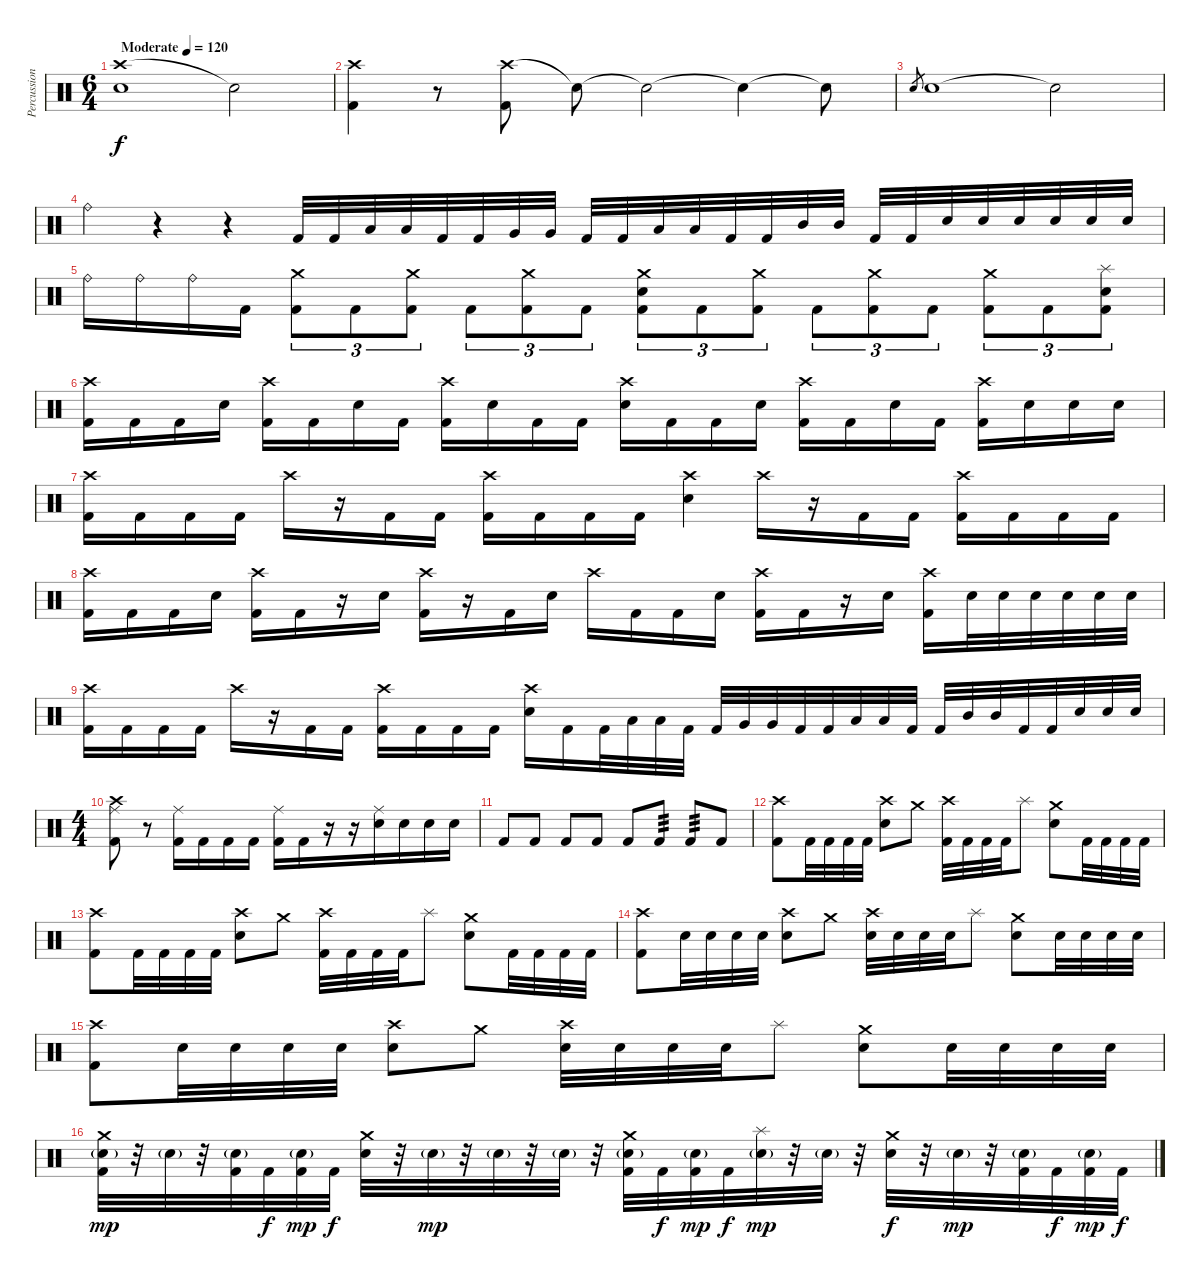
\track ("Percussion" "Percussion") {instrument percussion}
\staff {score}
\articulation defaults
\ts (6 4)
\tempo (120 "Moderate")
\clef neutral
\ks c
("Crash high (hit)" "Snare (hit) 2").1{dy f} "Snare (hit)"{t}.2 |
("Crash high (hit)" "Kick (hit) 2").4 r.8 ("Crash high (hit)" "Kick (hit) 2").8 "Snare (hit)"{t}.8 "Snare (hit)"{t}.2 "Snare (hit)"{t}.4 "Snare (hit)"{t}.8 |
"Snare (hit) 2".8{gr} "Snare (hit) 2".1 "Snare (hit)"{t}.2 |
"Ride (bell)".4 r.4 r.4 "Kick (hit) 2".32 "Kick (hit) 2".32 "Low Floor Tom (hit)".32 "Low Floor Tom (hit)".32 "Kick (hit) 2".32 "Kick (hit) 2".32 "Very Low Tom (hit)".32 "Very Low Tom (hit)".32 "Kick (hit) 2".32 "Kick (hit) 2".32 "Low Tom (hit)".32 "Low Tom (hit)".32 "Kick (hit) 2".32 "Kick (hit) 2".32 "Mid Tom (hit)".32 "Mid Tom (hit)".32 "Kick (hit) 2".32 "Kick (hit) 2".32 "Electric Snare (hit)".32 "Electric Snare (hit)".32 "Electric Snare (hit)".32 "Electric Snare (hit)".32{beam merge} "Electric Snare (hit)".32 "Electric Snare (hit)".32 |
"Ride (bell)".16 "Ride (bell)".16 "Ride (bell)".16 "Kick (hit) 2".16 ("Crash medium (hit)" "Kick (hit) 2").8{tu (3 2)} "Kick (hit) 2".8{tu (3 2)} ("Crash medium (hit)" "Kick (hit) 2").8{tu (3 2)} "Kick (hit) 2".8{tu (3 2)} ("Crash medium (hit)" "Kick (hit) 2").8{tu (3 2)} "Kick (hit) 2".8{tu (3 2)} ("Crash medium (hit)" "Electric Snare (hit)" "Kick (hit) 2").8{tu (3 2)} "Kick (hit) 2".8{tu (3 2)} ("Crash medium (hit)" "Kick (hit) 2").8{tu (3 2)} "Kick (hit) 2".8{tu (3 2)} ("Crash medium (hit)" "Kick (hit) 2").8{tu (3 2)} "Kick (hit) 2".8{tu (3 2)} ("Crash medium (hit)" "Kick (hit) 2").8{tu (3 2)} "Kick (hit) 2".8{tu (3 2)} ("Splash (hit)" "Electric Snare (hit)" "Kick (hit) 2").8{tu (3 2)} |
("Crash high (hit)" "Kick (hit) 2").16 "Kick (hit) 2".16 "Kick (hit) 2".16 "Electric Snare (hit)".16 ("Crash high (hit)" "Kick (hit) 2").16 "Kick (hit) 2".16 "Electric Snare (hit)".16 "Kick (hit) 2".16 ("Crash high (hit)" "Kick (hit) 2").16 "Electric Snare (hit)".16 "Kick (hit) 2".16 "Kick (hit) 2".16 ("Crash high (hit)" "Electric Snare (hit)").16 "Kick (hit) 2".16 "Kick (hit) 2".16 "Electric Snare (hit)".16 ("Crash high (hit)" "Kick (hit) 2").16 "Kick (hit) 2".16 "Electric Snare (hit)".16 "Kick (hit) 2".16 ("Crash high (hit)" "Kick (hit) 2").16 "Electric Snare (hit)".16 "Electric Snare (hit)".16 "Electric Snare (hit)".16 |
("Crash high (hit)" "Kick (hit) 2").16 "Kick (hit) 2".16 "Kick (hit) 2".16 "Kick (hit) 2".16 "Crash high (hit)".16 r.16 "Kick (hit) 2".16 "Kick (hit) 2".16 ("Crash high (hit)" "Kick (hit) 2").16 "Kick (hit) 2".16 "Kick (hit) 2".16 "Kick (hit) 2".16 ("Crash high (hit)" "Electric Snare (hit)").4 "Crash high (hit)".16 r.16 "Kick (hit) 2".16 "Kick (hit) 2".16 ("Crash high (hit)" "Kick (hit) 2").16 "Kick (hit) 2".16 "Kick (hit) 2".16 "Kick (hit) 2".16 |
("Crash high (hit)" "Kick (hit) 2").16 "Kick (hit) 2".16 "Kick (hit) 2".16 "Electric Snare (hit)".16 ("Crash high (hit)" "Kick (hit) 2").16 "Kick (hit) 2".16 r.16 "Electric Snare (hit)".16 ("Crash high (hit)" "Kick (hit) 2").16 r.16 "Kick (hit) 2".16 "Electric Snare (hit)".16 "Crash high (hit)".16 "Kick (hit) 2".16 "Kick (hit) 2".16 "Electric Snare (hit)".16 ("Crash high (hit)" "Kick (hit) 2").16 "Kick (hit) 2".16 r.16 "Electric Snare (hit)".16 ("Crash high (hit)" "Kick (hit) 2").16 "Electric Snare (hit)".32 "Electric Snare (hit)".32 "Electric Snare (hit)".32 "Electric Snare (hit)".32 "Electric Snare (hit)".32 "Electric Snare (hit)".32 |
("Crash high (hit)" "Kick (hit) 2").16 "Kick (hit) 2".16 "Kick (hit) 2".16 "Kick (hit) 2".16 "Crash high (hit)".16 r.16 "Kick (hit) 2".16 "Kick (hit) 2".16 ("Crash high (hit)" "Kick (hit) 2").16 "Kick (hit) 2".16 "Kick (hit) 2".16 "Kick (hit) 2".16 ("Crash high (hit)" "Electric Snare (hit)").16 "Kick (hit) 2".16 "Kick (hit) 2".32 "Low Floor Tom (hit)".32 "Low Floor Tom (hit)".32 "Kick (hit) 2".32 "Kick (hit) 2".32 "Very Low Tom (hit)".32 "Very Low Tom (hit)".32 "Kick (hit) 2".32 "Kick (hit) 2".32 "Low Tom (hit)".32 "Low Tom (hit)".32 "Kick (hit) 2".32 "Kick (hit) 2".32 "Mid Tom (hit)".32 "Mid Tom (hit)".32 "Kick (hit) 2".32 "Kick (hit) 2".32 "Electric Snare (hit)".32 "Electric Snare (hit)".32 "Electric Snare (hit)".32 |
\ts (4 4)
("Crash high (hit)" "Ride (middle)" "Kick (hit) 2").8 r.8 ("Ride (middle)" "Kick (hit) 2").16 "Kick (hit) 2".16 "Kick (hit) 2".16 "Kick (hit) 2".16 ("Ride (middle)" "Kick (hit) 2").16 "Kick (hit) 2".16{beam merge} r.16 r.16 ("Ride (middle)" "Electric Snare (hit)").16 "Electric Snare (hit)".16 "Electric Snare (hit)".16 "Electric Snare (hit)".16 |
"Kick (hit) 2".8 "Kick (hit) 2".8 "Kick (hit) 2".8 "Kick (hit) 2".8 "Kick (hit) 2".8 "Kick (hit) 2".8{tp 3} "Kick (hit) 2".8{tp 3} "Kick (hit) 2".8 |
("Crash high (hit)" "Kick (hit) 2").8 "Kick (hit) 2".32 "Kick (hit) 2".32 "Kick (hit) 2".32 "Kick (hit) 2".32 ("Crash high (hit)" "Electric Snare (hit)").8 "Crash medium (hit)".8 ("Crash high (hit)" "Kick (hit) 2").32 "Kick (hit) 2".32 "Kick (hit) 2".32 "Kick (hit) 2".32 "Splash (hit)".8 ("Crash medium (hit)" "Electric Snare (hit)").8 "Kick (hit) 2".32 "Kick (hit) 2".32 "Kick (hit) 2".32 "Kick (hit) 2".32 |
("Crash high (hit)" "Kick (hit) 2").8 "Kick (hit) 2".32 "Kick (hit) 2".32 "Kick (hit) 2".32 "Kick (hit) 2".32 ("Crash high (hit)" "Electric Snare (hit)").8 "Crash medium (hit)".8 ("Crash high (hit)" "Kick (hit) 2").32 "Kick (hit) 2".32 "Kick (hit) 2".32 "Kick (hit) 2".32 "Splash (hit)".8 ("Crash medium (hit)" "Electric Snare (hit)").8 "Kick (hit) 2".32 "Kick (hit) 2".32 "Kick (hit) 2".32 "Kick (hit) 2".32 |
("Crash high (hit)" "Kick (hit) 2").8 "Electric Snare (hit)".32 "Electric Snare (hit)".32 "Electric Snare (hit)".32 "Electric Snare (hit)".32 ("Crash high (hit)" "Electric Snare (hit)").8 "Crash medium (hit)".8 ("Crash high (hit)" "Electric Snare (hit)").32 "Electric Snare (hit)".32 "Electric Snare (hit)".32 "Electric Snare (hit)".32 "Splash (hit)".8 ("Crash medium (hit)" "Electric Snare (hit)").8 "Electric Snare (hit)".32 "Electric Snare (hit)".32 "Electric Snare (hit)".32 "Electric Snare (hit)".32 |
("Crash high (hit)" "Kick (hit) 2").8 "Electric Snare (hit)".32 "Electric Snare (hit)".32 "Electric Snare (hit)".32 "Electric Snare (hit)".32 ("Crash high (hit)" "Electric Snare (hit)").8 "Crash medium (hit)".8 ("Crash high (hit)" "Electric Snare (hit)").32 "Electric Snare (hit)".32 "Electric Snare (hit)".32 "Electric Snare (hit)".32 "Splash (hit)".8 ("Crash medium (hit)" "Electric Snare (hit)").8 "Electric Snare (hit)".32 "Electric Snare (hit)".32 "Electric Snare (hit)".32 "Electric Snare (hit)".32 |
("Crash medium (hit)" "Electric Snare (hit)"{g} "Kick (hit) 2").32{dy mp} r.32 "Electric Snare (hit)"{g}.32 r.32 ("Electric Snare (hit)"{g} "Kick (hit) 2").32 "Kick (hit) 2".32{dy f} ("Electric Snare (hit)"{g} "Kick (hit) 2").32{dy mp} "Kick (hit) 2".32{dy f} ("Crash medium (hit)" "Electric Snare (hit)").32 r.32 "Electric Snare (hit)"{g}.32{dy mp} r.32 "Electric Snare (hit)"{g}.32 r.32 "Electric Snare (hit)"{g}.32 r.32 ("Crash medium (hit)" "Electric Snare (hit)"{g} "Kick (hit) 2").32 "Kick (hit) 2".32{dy f} ("Electric Snare (hit)"{g} "Kick (hit) 2").32{dy mp} "Kick (hit) 2".32{dy f} ("Splash (hit)" "Electric Snare (hit)"{g}).32{dy mp} r.32 "Electric Snare (hit)"{g}.32 r.32 ("Crash medium (hit)" "Electric Snare (hit)").32{dy f} r.32 "Electric Snare (hit)"{g}.32{dy mp} r.32 ("Electric Snare (hit)"{g} "Kick (hit) 2").32 "Kick (hit) 2".32{dy f} ("Electric Snare (hit)"{g} "Kick (hit) 2").32{dy mp} "Kick (hit) 2".32{dy f}
